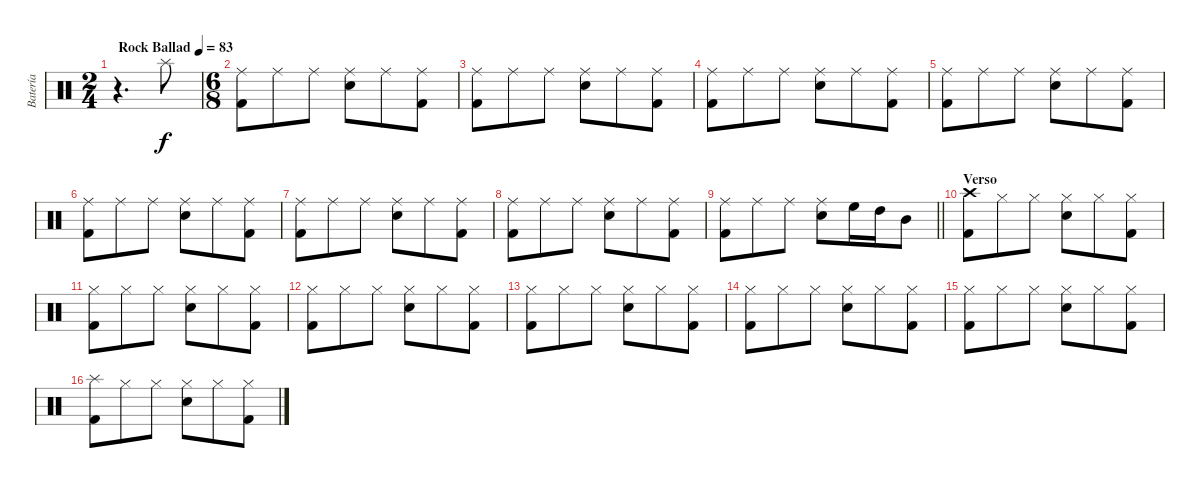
\track ("Batería" "Batería") {instrument percussion}
\staff {score}
\articulation defaults
\ts (2 4)
\tempo (83 "Rock Ballad")
\clef neutral
\ks c
r.4{d dy f} "Splash (hit)".8 |
\ts (6 8)
("Ride (middle)" "Kick (hit) 2").8 "Ride (middle)".8 "Ride (middle)".8 ("Ride (middle)" "Electric Snare (hit)").8 "Ride (middle)".8 ("Ride (middle)" "Kick (hit) 2").8 |
("Ride (middle)" "Kick (hit) 2").8 "Ride (middle)".8 "Ride (middle)".8 ("Ride (middle)" "Electric Snare (hit)").8 "Ride (middle)".8 ("Ride (middle)" "Kick (hit) 2").8 |
("Ride (middle)" "Kick (hit) 2").8 "Ride (middle)".8 "Ride (middle)".8 ("Ride (middle)" "Electric Snare (hit)").8 "Ride (middle)".8 ("Ride (middle)" "Kick (hit) 2").8 |
("Ride (middle)" "Kick (hit) 2").8 "Ride (middle)".8 "Ride (middle)".8 ("Ride (middle)" "Electric Snare (hit)").8 "Ride (middle)".8 ("Ride (middle)" "Kick (hit) 2").8 |
("Ride (middle)" "Kick (hit) 2").8 "Ride (middle)".8 "Ride (middle)".8 ("Ride (middle)" "Electric Snare (hit)").8 "Ride (middle)".8 ("Ride (middle)" "Kick (hit) 2").8 |
("Ride (middle)" "Kick (hit) 2").8 "Ride (middle)".8 "Ride (middle)".8 ("Ride (middle)" "Electric Snare (hit)").8 "Ride (middle)".8 ("Ride (middle)" "Kick (hit) 2").8 |
("Ride (middle)" "Kick (hit) 2").8 "Ride (middle)".8 "Ride (middle)".8 ("Ride (middle)" "Electric Snare (hit)").8 "Ride (middle)".8 ("Ride (middle)" "Kick (hit) 2").8 |
\barLineRight lightlight
("Ride (middle)" "Kick (hit) 2").8 "Ride (middle)".8 "Ride (middle)".8 ("Ride (middle)" "Electric Snare (hit)").8 "High Floor Tom (hit)".16 "High Tom (hit)".16 "Mid Tom (hit)".8 |
\section ("" "Verso")
("Crash high (hit)" "Kick (hit) 2").8 "Hi-Hat (closed)".8 "Hi-Hat (closed)".8 ("Hi-Hat (closed)" "Electric Snare (hit)").8 "Hi-Hat (closed)".8 ("Hi-Hat (closed)" "Kick (hit) 2").8 |
("Hi-Hat (closed)" "Kick (hit) 2").8 "Hi-Hat (closed)".8 "Hi-Hat (closed)".8 ("Hi-Hat (closed)" "Electric Snare (hit)").8 "Hi-Hat (closed)".8 ("Hi-Hat (closed)" "Kick (hit) 2").8 |
("Hi-Hat (closed)" "Kick (hit) 2").8 "Hi-Hat (closed)".8 "Hi-Hat (closed)".8 ("Hi-Hat (closed)" "Electric Snare (hit)").8 "Hi-Hat (closed)".8 ("Hi-Hat (closed)" "Kick (hit) 2").8 |
("Hi-Hat (closed)" "Kick (hit) 2").8 "Hi-Hat (closed)".8 "Hi-Hat (closed)".8 ("Hi-Hat (closed)" "Electric Snare (hit)").8 "Hi-Hat (closed)".8 ("Hi-Hat (closed)" "Kick (hit) 2").8 |
("Hi-Hat (closed)" "Kick (hit) 2").8 "Hi-Hat (closed)".8 "Hi-Hat (closed)".8 ("Hi-Hat (closed)" "Electric Snare (hit)").8 "Hi-Hat (closed)".8 ("Hi-Hat (closed)" "Kick (hit) 2").8 |
("Hi-Hat (closed)" "Kick (hit) 2").8 "Hi-Hat (closed)".8 "Hi-Hat (closed)".8 ("Hi-Hat (closed)" "Electric Snare (hit)").8 "Hi-Hat (closed)".8 ("Hi-Hat (closed)" "Kick (hit) 2").8 |
("Splash (hit)" "Kick (hit) 2").8 "Hi-Hat (closed)".8 "Hi-Hat (closed)".8 ("Hi-Hat (closed)" "Electric Snare (hit)").8 "Hi-Hat (closed)".8 ("Hi-Hat (closed)" "Kick (hit) 2").8
